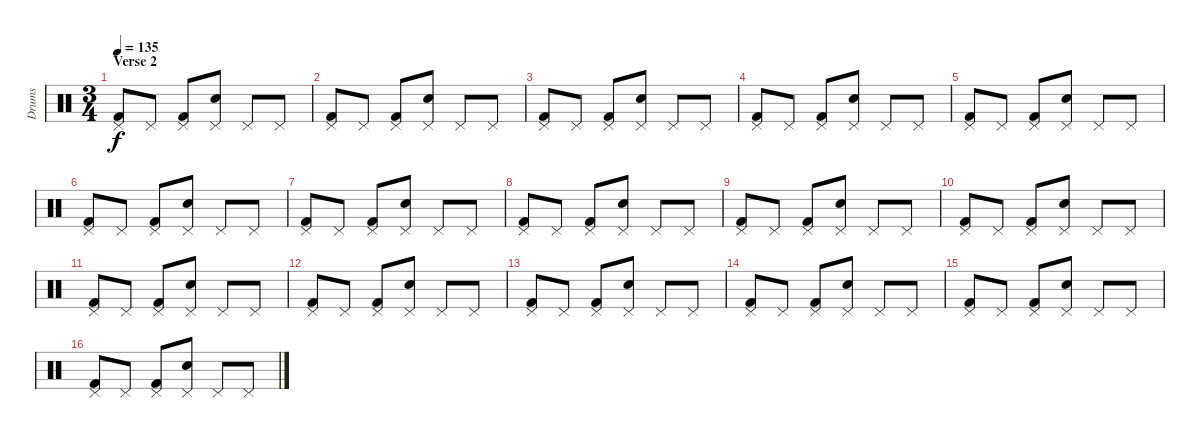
\track ("Drums" "Drums") {instrument percussion}
\staff {score}
\articulation defaults
\ts (3 4)
\section ("" "Verse 2")
\tempo 135
\clef neutral
\ks c
("Pedal Hi-Hat (hit)" "Kick (hit) 2").8{dy f} "Pedal Hi-Hat (hit)".8 ("Pedal Hi-Hat (hit)" "Kick (hit) 2").8 ("Pedal Hi-Hat (hit)" "Snare (hit) 2").8 "Pedal Hi-Hat (hit)".8 "Pedal Hi-Hat (hit)".8 |
("Pedal Hi-Hat (hit)" "Kick (hit) 2").8 "Pedal Hi-Hat (hit)".8 ("Pedal Hi-Hat (hit)" "Kick (hit) 2").8 ("Pedal Hi-Hat (hit)" "Snare (hit) 2").8 "Pedal Hi-Hat (hit)".8 "Pedal Hi-Hat (hit)".8 |
("Pedal Hi-Hat (hit)" "Kick (hit) 2").8 "Pedal Hi-Hat (hit)".8 ("Pedal Hi-Hat (hit)" "Kick (hit) 2").8 ("Pedal Hi-Hat (hit)" "Snare (hit) 2").8 "Pedal Hi-Hat (hit)".8 "Pedal Hi-Hat (hit)".8 |
("Pedal Hi-Hat (hit)" "Kick (hit) 2").8 "Pedal Hi-Hat (hit)".8 ("Pedal Hi-Hat (hit)" "Kick (hit) 2").8 ("Pedal Hi-Hat (hit)" "Snare (hit) 2").8 "Pedal Hi-Hat (hit)".8 "Pedal Hi-Hat (hit)".8 |
("Pedal Hi-Hat (hit)" "Kick (hit) 2").8 "Pedal Hi-Hat (hit)".8 ("Pedal Hi-Hat (hit)" "Kick (hit) 2").8 ("Pedal Hi-Hat (hit)" "Snare (hit) 2").8 "Pedal Hi-Hat (hit)".8 "Pedal Hi-Hat (hit)".8 |
("Pedal Hi-Hat (hit)" "Kick (hit) 2").8 "Pedal Hi-Hat (hit)".8 ("Pedal Hi-Hat (hit)" "Kick (hit) 2").8 ("Pedal Hi-Hat (hit)" "Snare (hit) 2").8 "Pedal Hi-Hat (hit)".8 "Pedal Hi-Hat (hit)".8 |
("Pedal Hi-Hat (hit)" "Kick (hit) 2").8 "Pedal Hi-Hat (hit)".8 ("Pedal Hi-Hat (hit)" "Kick (hit) 2").8 ("Pedal Hi-Hat (hit)" "Snare (hit) 2").8 "Pedal Hi-Hat (hit)".8 "Pedal Hi-Hat (hit)".8 |
("Pedal Hi-Hat (hit)" "Kick (hit) 2").8 "Pedal Hi-Hat (hit)".8 ("Pedal Hi-Hat (hit)" "Kick (hit) 2").8 ("Pedal Hi-Hat (hit)" "Snare (hit) 2").8 "Pedal Hi-Hat (hit)".8 "Pedal Hi-Hat (hit)".8 |
("Pedal Hi-Hat (hit)" "Kick (hit) 2").8 "Pedal Hi-Hat (hit)".8 ("Pedal Hi-Hat (hit)" "Kick (hit) 2").8 ("Pedal Hi-Hat (hit)" "Snare (hit) 2").8 "Pedal Hi-Hat (hit)".8 "Pedal Hi-Hat (hit)".8 |
("Pedal Hi-Hat (hit)" "Kick (hit) 2").8 "Pedal Hi-Hat (hit)".8 ("Pedal Hi-Hat (hit)" "Kick (hit) 2").8 ("Pedal Hi-Hat (hit)" "Snare (hit) 2").8 "Pedal Hi-Hat (hit)".8 "Pedal Hi-Hat (hit)".8 |
("Pedal Hi-Hat (hit)" "Kick (hit) 2").8 "Pedal Hi-Hat (hit)".8 ("Pedal Hi-Hat (hit)" "Kick (hit) 2").8 ("Pedal Hi-Hat (hit)" "Snare (hit) 2").8 "Pedal Hi-Hat (hit)".8 "Pedal Hi-Hat (hit)".8 |
("Pedal Hi-Hat (hit)" "Kick (hit) 2").8 "Pedal Hi-Hat (hit)".8 ("Pedal Hi-Hat (hit)" "Kick (hit) 2").8 ("Pedal Hi-Hat (hit)" "Snare (hit) 2").8 "Pedal Hi-Hat (hit)".8 "Pedal Hi-Hat (hit)".8 |
("Pedal Hi-Hat (hit)" "Kick (hit) 2").8 "Pedal Hi-Hat (hit)".8 ("Pedal Hi-Hat (hit)" "Kick (hit) 2").8 ("Pedal Hi-Hat (hit)" "Snare (hit) 2").8 "Pedal Hi-Hat (hit)".8 "Pedal Hi-Hat (hit)".8 |
("Pedal Hi-Hat (hit)" "Kick (hit) 2").8 "Pedal Hi-Hat (hit)".8 ("Pedal Hi-Hat (hit)" "Kick (hit) 2").8 ("Pedal Hi-Hat (hit)" "Snare (hit) 2").8 "Pedal Hi-Hat (hit)".8 "Pedal Hi-Hat (hit)".8 |
("Pedal Hi-Hat (hit)" "Kick (hit) 2").8 "Pedal Hi-Hat (hit)".8 ("Pedal Hi-Hat (hit)" "Kick (hit) 2").8 ("Pedal Hi-Hat (hit)" "Snare (hit) 2").8 "Pedal Hi-Hat (hit)".8 "Pedal Hi-Hat (hit)".8 |
("Pedal Hi-Hat (hit)" "Kick (hit) 2").8 "Pedal Hi-Hat (hit)".8 ("Pedal Hi-Hat (hit)" "Kick (hit) 2").8 ("Pedal Hi-Hat (hit)" "Snare (hit) 2").8 "Pedal Hi-Hat (hit)".8 "Pedal Hi-Hat (hit)".8
